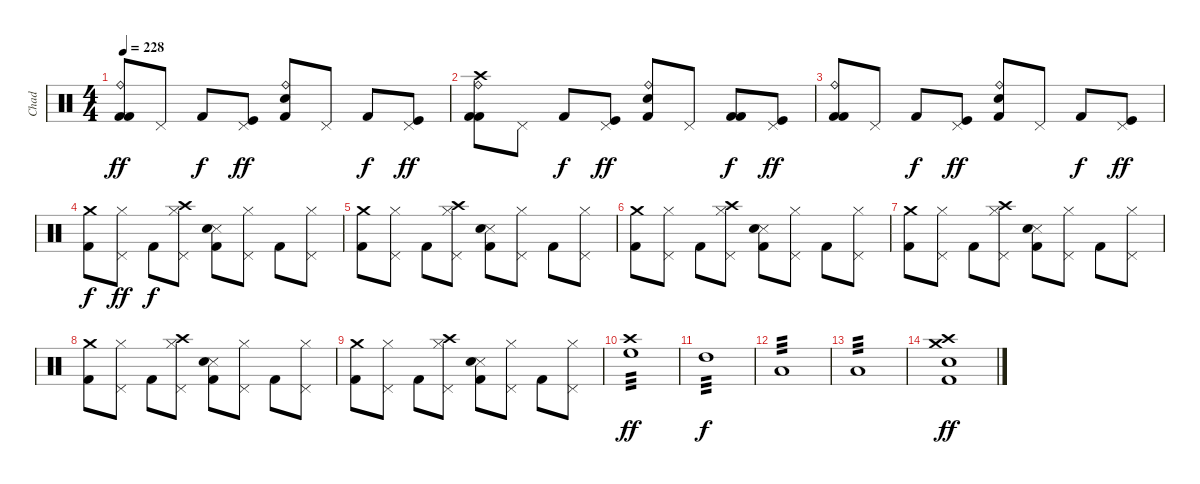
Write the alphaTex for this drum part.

\track ("Chad" "Chad") {instrument percussion}
\staff {score}
\articulation defaults
\ts (4 4)
\tempo 228
\clef neutral
\ks c
("Ride (bell)" "Kick (hit) 2" "Kick (hit) 2").8{dy ff} "Pedal Hi-Hat (hit)".8 "Kick (hit) 2".8{dy f} ("Kick (hit)" "Pedal Hi-Hat (hit)").8{dy ff} ("Ride (bell)" "Electric Snare (hit)" "Kick (hit) 2").8 "Pedal Hi-Hat (hit)".8 "Kick (hit) 2".8{dy f} ("Kick (hit)" "Pedal Hi-Hat (hit)").8{dy ff} |
("Crash high (hit)" "Ride (bell)" "Kick (hit) 2" "Kick (hit) 2").8 "Pedal Hi-Hat (hit)".8 "Kick (hit) 2".8{dy f} ("Kick (hit)" "Pedal Hi-Hat (hit)").8{dy ff} ("Ride (bell)" "Electric Snare (hit)" "Kick (hit) 2").8 "Pedal Hi-Hat (hit)".8 ("Kick (hit) 2" "Kick (hit) 2").8{dy f} ("Kick (hit)" "Pedal Hi-Hat (hit)").8{dy ff} |
("Ride (bell)" "Kick (hit) 2" "Kick (hit) 2").8 "Pedal Hi-Hat (hit)".8 "Kick (hit) 2".8{dy f} ("Kick (hit)" "Pedal Hi-Hat (hit)").8{dy ff} ("Ride (bell)" "Electric Snare (hit)" "Kick (hit) 2").8 "Pedal Hi-Hat (hit)".8 "Kick (hit) 2".8{dy f} ("Kick (hit)" "Pedal Hi-Hat (hit)").8{dy ff} |
("Crash medium (hit)" "Kick (hit) 2").8{dy f} ("Hi-Hat (closed)" "Pedal Hi-Hat (hit)").8{dy ff} "Kick (hit) 2".8{dy f} ("Crash high (hit)" "Hi-Hat (closed)" "Pedal Hi-Hat (hit)").8 ("Snare (side stick) 3" "Electric Snare (hit)" "Kick (hit) 2").8 ("Hi-Hat (closed)" "Pedal Hi-Hat (hit)").8 "Kick (hit) 2".8 ("Hi-Hat (closed)" "Pedal Hi-Hat (hit)").8 |
("Crash medium (hit)" "Kick (hit) 2").8 ("Hi-Hat (closed)" "Pedal Hi-Hat (hit)").8 "Kick (hit) 2".8 ("Crash high (hit)" "Hi-Hat (closed)" "Pedal Hi-Hat (hit)").8 ("Snare (side stick) 3" "Electric Snare (hit)" "Kick (hit) 2").8 ("Hi-Hat (closed)" "Pedal Hi-Hat (hit)").8 "Kick (hit) 2".8 ("Hi-Hat (closed)" "Pedal Hi-Hat (hit)").8 |
("Crash medium (hit)" "Kick (hit) 2").8 ("Hi-Hat (closed)" "Pedal Hi-Hat (hit)").8 "Kick (hit) 2".8 ("Crash high (hit)" "Hi-Hat (closed)" "Pedal Hi-Hat (hit)").8 ("Snare (side stick) 3" "Electric Snare (hit)" "Kick (hit) 2").8 ("Hi-Hat (closed)" "Pedal Hi-Hat (hit)").8 "Kick (hit) 2".8 ("Hi-Hat (closed)" "Pedal Hi-Hat (hit)").8 |
("Crash medium (hit)" "Kick (hit) 2").8 ("Hi-Hat (closed)" "Pedal Hi-Hat (hit)").8 "Kick (hit) 2".8 ("Crash high (hit)" "Hi-Hat (closed)" "Pedal Hi-Hat (hit)").8 ("Snare (side stick) 3" "Electric Snare (hit)" "Kick (hit) 2").8 ("Hi-Hat (closed)" "Pedal Hi-Hat (hit)").8 "Kick (hit) 2".8 ("Hi-Hat (closed)" "Pedal Hi-Hat (hit)").8 |
("Crash medium (hit)" "Kick (hit) 2").8 ("Hi-Hat (closed)" "Pedal Hi-Hat (hit)").8 "Kick (hit) 2".8 ("Crash high (hit)" "Hi-Hat (closed)" "Pedal Hi-Hat (hit)").8 ("Snare (side stick) 3" "Electric Snare (hit)" "Kick (hit) 2").8 ("Hi-Hat (closed)" "Pedal Hi-Hat (hit)").8 "Kick (hit) 2".8 ("Hi-Hat (closed)" "Pedal Hi-Hat (hit)").8 |
("Crash medium (hit)" "Kick (hit) 2").8 ("Hi-Hat (closed)" "Pedal Hi-Hat (hit)").8 "Kick (hit) 2".8 ("Crash high (hit)" "Hi-Hat (closed)" "Pedal Hi-Hat (hit)").8 ("Snare (side stick) 3" "Electric Snare (hit)" "Kick (hit) 2").8 ("Hi-Hat (closed)" "Pedal Hi-Hat (hit)").8 "Kick (hit) 2".8 ("Hi-Hat (closed)" "Pedal Hi-Hat (hit)").8 |
("Crash high (hit)" "High Floor Tom (hit)").1{tp 3 dy ff} |
"High Tom (hit)".1{tp 3 dy f} |
"Low Tom (hit)".1{tp 3} |
"Low Floor Tom (hit)".1{tp 3} |
("Crash high (hit)" "Crash medium (hit)" "Electric Snare (hit)" "Kick (hit) 2").1{dy ff}
